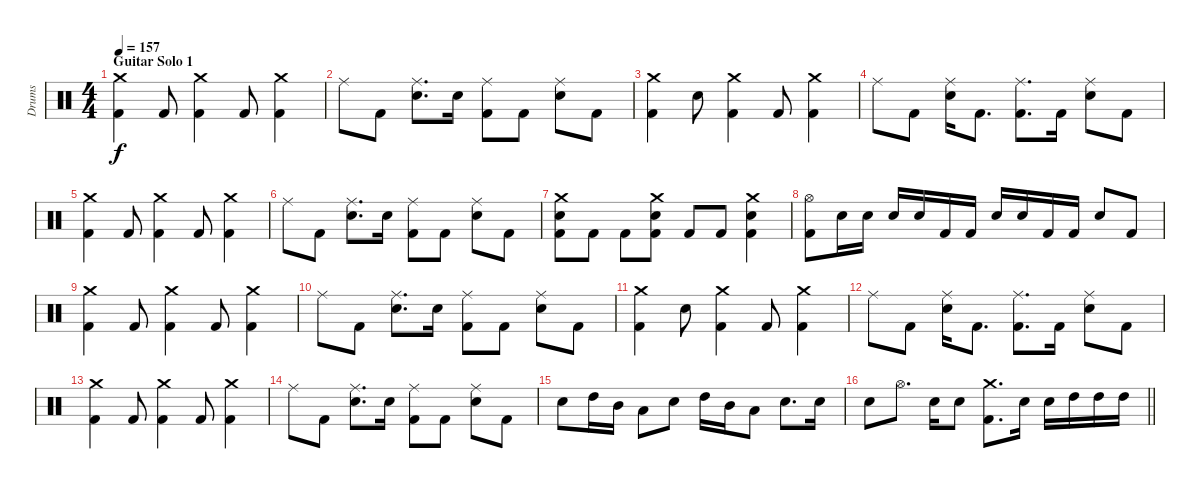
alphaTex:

\track ("Drums" "Drums") {instrument percussion}
\staff {score}
\articulation defaults
\ts (4 4)
\section ("" "Guitar Solo 1")
\tempo 157
\clef neutral
\ks c
("Crash medium (hit)" "Kick (hit) 2").4{dy f} "Kick (hit) 2".8 ("Crash medium (hit)" "Kick (hit) 2").4 "Kick (hit) 2".8 ("Crash medium (hit)" "Kick (hit) 2").4 |
"Ride (middle)".8 "Kick (hit) 2".8 ("Ride (middle)" "Electric Snare (hit)").8{d} "Electric Snare (hit)".16 ("Ride (middle)" "Kick (hit) 2").8 "Kick (hit) 2".8 ("Ride (middle)" "Electric Snare (hit)").8 "Kick (hit) 2".8 |
("Crash medium (hit)" "Kick (hit) 2").4 "Electric Snare (hit)".8 ("Crash medium (hit)" "Kick (hit) 2").4 "Kick (hit) 2".8 ("Crash medium (hit)" "Kick (hit) 2").4 |
"Ride (middle)".8 "Kick (hit) 2".8 ("Ride (middle)" "Electric Snare (hit)").16 "Kick (hit) 2".8{d} ("Ride (middle)" "Kick (hit) 2").8{d} "Kick (hit) 2".16 ("Ride (middle)" "Electric Snare (hit)").8 "Kick (hit) 2".8 |
("Crash medium (hit)" "Kick (hit) 2").4 "Kick (hit) 2".8 ("Crash medium (hit)" "Kick (hit) 2").4 "Kick (hit) 2".8 ("Crash medium (hit)" "Kick (hit) 2").4 |
"Ride (middle)".8 "Kick (hit) 2".8 ("Ride (middle)" "Electric Snare (hit)").8{d} "Electric Snare (hit)".16 ("Ride (middle)" "Kick (hit) 2").8 "Kick (hit) 2".8 ("Ride (middle)" "Electric Snare (hit)").8 "Kick (hit) 2".8 |
("Crash medium (hit)" "Electric Snare (hit)" "Kick (hit) 2").8 "Kick (hit) 2".8 "Kick (hit) 2".8 ("Crash medium (hit)" "Electric Snare (hit)" "Kick (hit) 2").8 "Kick (hit) 2".8 "Kick (hit) 2".8 ("Crash medium (hit)" "Electric Snare (hit)" "Kick (hit) 2").4 |
("Hi-Hat (open)" "Kick (hit) 2").8 "Electric Snare (hit)".16 "Electric Snare (hit)".16 "Electric Snare (hit)".16 "Electric Snare (hit)".16 "Kick (hit) 2".16 "Kick (hit) 2".16 "Electric Snare (hit)".16 "Electric Snare (hit)".16 "Kick (hit) 2".16 "Kick (hit) 2".16 "Electric Snare (hit)".8 "Kick (hit) 2".8 |
("Crash medium (hit)" "Kick (hit) 2").4 "Kick (hit) 2".8 ("Crash medium (hit)" "Kick (hit) 2").4 "Kick (hit) 2".8 ("Crash medium (hit)" "Kick (hit) 2").4 |
"Ride (middle)".8 "Kick (hit) 2".8 ("Ride (middle)" "Electric Snare (hit)").8{d} "Electric Snare (hit)".16 ("Ride (middle)" "Kick (hit) 2").8 "Kick (hit) 2".8 ("Ride (middle)" "Electric Snare (hit)").8 "Kick (hit) 2".8 |
("Crash medium (hit)" "Kick (hit) 2").4 "Electric Snare (hit)".8 ("Crash medium (hit)" "Kick (hit) 2").4 "Kick (hit) 2".8 ("Crash medium (hit)" "Kick (hit) 2").4 |
"Ride (middle)".8 "Kick (hit) 2".8 ("Ride (middle)" "Electric Snare (hit)").16 "Kick (hit) 2".8{d} ("Ride (middle)" "Kick (hit) 2").8{d} "Kick (hit) 2".16 ("Ride (middle)" "Electric Snare (hit)").8 "Kick (hit) 2".8 |
("Crash medium (hit)" "Kick (hit) 2").4 "Kick (hit) 2".8 ("Crash medium (hit)" "Kick (hit) 2").4 "Kick (hit) 2".8 ("Crash medium (hit)" "Kick (hit) 2").4 |
"Ride (middle)".8 "Kick (hit) 2".8 ("Ride (middle)" "Electric Snare (hit)").8{d} "Electric Snare (hit)".16 ("Ride (middle)" "Kick (hit) 2").8 "Kick (hit) 2".8 ("Ride (middle)" "Electric Snare (hit)").8 "Kick (hit) 2".8 |
"Electric Snare (hit)".8 "High Tom (hit)".16 "Mid Tom (hit)".16 "Low Tom (hit)".8 "Electric Snare (hit)".8 "High Tom (hit)".16 "Mid Tom (hit)".16 "Low Tom (hit)".8 "Electric Snare (hit)".8{d} "Electric Snare (hit)".16 |
\barLineRight lightlight "Electric Snare (hit)".8 "Hi-Hat (open)".8{d} "Electric Snare (hit)".16 "Electric Snare (hit)".8
("Crash medium (hit)" "Kick (hit) 2").8{d} "Electric Snare (hit)".16 "Electric Snare (hit)".16 "High Tom (hit)".16 "High Tom (hit)".16 "High Tom (hit)".16
